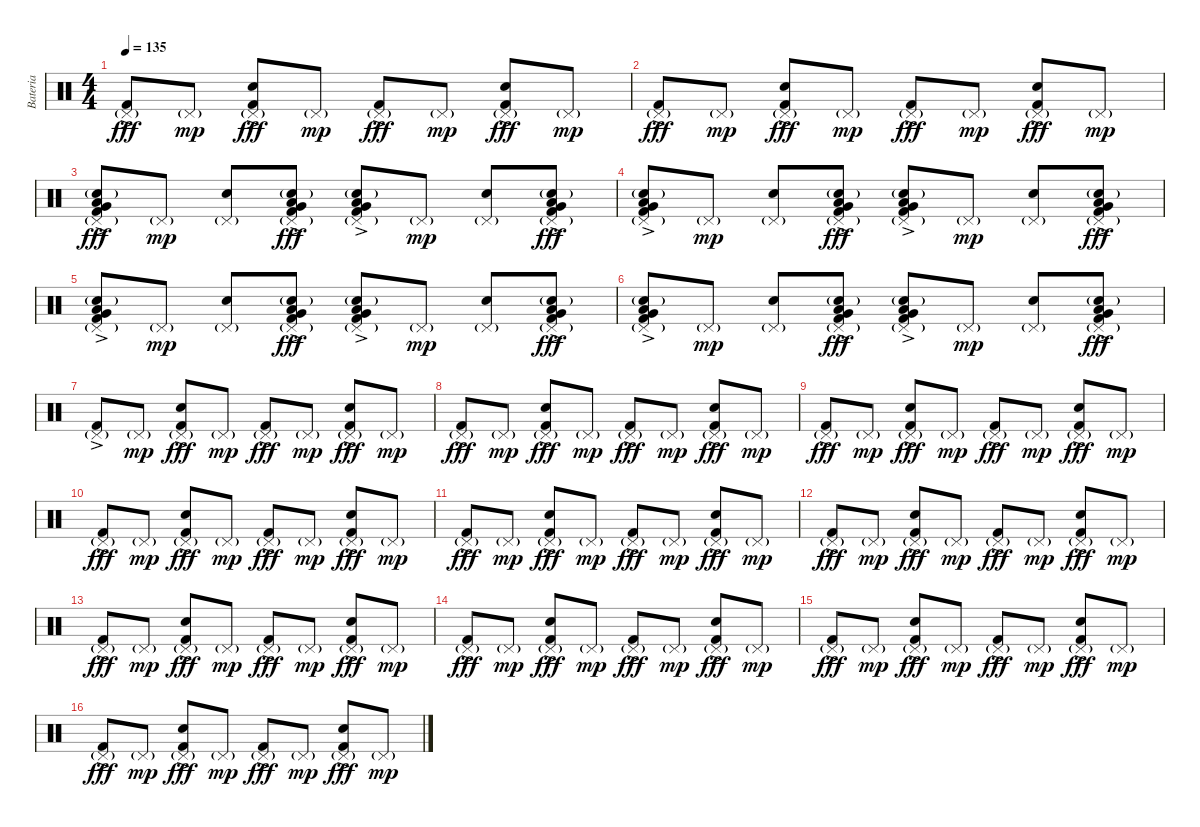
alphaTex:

\track ("Bateria" "Bateria") {instrument percussion}
\staff {score}
\articulation defaults
\ts (4 4)
\tempo 135
\clef neutral
\ks c
("Pedal Hi-Hat (hit)"{g} "Kick (hit) 2"{ac}).8{dy fff} "Pedal Hi-Hat (hit)"{g}.8{dy mp} ("Pedal Hi-Hat (hit)"{g} "Snare (hit) 2" "Kick (hit) 2"{ac}).8{dy fff} "Pedal Hi-Hat (hit)"{g}.8{dy mp} ("Pedal Hi-Hat (hit)"{g} "Kick (hit) 2"{ac}).8{dy fff} "Pedal Hi-Hat (hit)"{g}.8{dy mp} ("Pedal Hi-Hat (hit)"{g} "Snare (hit) 2" "Kick (hit) 2"{ac}).8{dy fff} "Pedal Hi-Hat (hit)"{g}.8{dy mp} |
("Pedal Hi-Hat (hit)"{g} "Kick (hit) 2"{ac}).8{dy fff} "Pedal Hi-Hat (hit)"{g}.8{dy mp} ("Pedal Hi-Hat (hit)"{g} "Snare (hit) 2" "Kick (hit) 2"{ac}).8{dy fff} "Pedal Hi-Hat (hit)"{g}.8{dy mp} ("Pedal Hi-Hat (hit)"{g} "Kick (hit) 2"{ac}).8{dy fff} "Pedal Hi-Hat (hit)"{g}.8{dy mp} ("Pedal Hi-Hat (hit)"{g} "Snare (hit) 2" "Kick (hit) 2"{ac}).8{dy fff} "Pedal Hi-Hat (hit)"{g}.8{dy mp} |
("Pedal Hi-Hat (hit)"{g} "Snare (hit) 2"{g} "Low Floor Tom (hit)"{ac} "Very Low Tom (hit)"{ac} "Kick (hit) 2"{ac}).8{dy fff} "Pedal Hi-Hat (hit)"{g}.8{dy mp} ("Pedal Hi-Hat (hit)"{g} "Snare (hit) 2").8 ("Pedal Hi-Hat (hit)"{g} "Snare (hit) 2"{g} "Low Floor Tom (hit)"{ac} "Very Low Tom (hit)"{ac} "Kick (hit) 2"{ac}).8{dy fff} ("Pedal Hi-Hat (hit)"{g} "Snare (hit) 2"{g} "Low Floor Tom (hit)"{ac} "Very Low Tom (hit)"{ac} "Kick (hit) 2"{ac}).8 "Pedal Hi-Hat (hit)"{g}.8{dy mp} ("Pedal Hi-Hat (hit)"{g} "Snare (hit) 2").8 ("Pedal Hi-Hat (hit)"{g} "Snare (hit) 2"{g} "Low Floor Tom (hit)"{ac} "Very Low Tom (hit)"{ac} "Kick (hit) 2"{ac}).8{dy fff} |
("Pedal Hi-Hat (hit)"{g} "Snare (hit) 2"{g} "Low Floor Tom (hit)"{ac} "Very Low Tom (hit)"{ac} "Kick (hit) 2"{ac}).8 "Pedal Hi-Hat (hit)"{g}.8{dy mp} ("Pedal Hi-Hat (hit)"{g} "Snare (hit) 2").8 ("Pedal Hi-Hat (hit)"{g} "Snare (hit) 2"{g} "Low Floor Tom (hit)"{ac} "Very Low Tom (hit)"{ac} "Kick (hit) 2"{ac}).8{dy fff} ("Pedal Hi-Hat (hit)"{g} "Snare (hit) 2"{g} "Low Floor Tom (hit)"{ac} "Very Low Tom (hit)"{ac} "Kick (hit) 2"{ac}).8 "Pedal Hi-Hat (hit)"{g}.8{dy mp} ("Pedal Hi-Hat (hit)"{g} "Snare (hit) 2").8 ("Pedal Hi-Hat (hit)"{g} "Snare (hit) 2"{g} "Low Floor Tom (hit)"{ac} "Very Low Tom (hit)"{ac} "Kick (hit) 2"{ac}).8{dy fff} |
("Pedal Hi-Hat (hit)"{g} "Snare (hit) 2"{g} "Low Floor Tom (hit)"{ac} "Very Low Tom (hit)"{ac} "Kick (hit) 2"{ac}).8 "Pedal Hi-Hat (hit)"{g}.8{dy mp} ("Pedal Hi-Hat (hit)"{g} "Snare (hit) 2").8 ("Pedal Hi-Hat (hit)"{g} "Snare (hit) 2"{g} "Low Floor Tom (hit)"{ac} "Very Low Tom (hit)"{ac} "Kick (hit) 2"{ac}).8{dy fff} ("Pedal Hi-Hat (hit)"{g} "Snare (hit) 2"{g} "Low Floor Tom (hit)"{ac} "Very Low Tom (hit)"{ac} "Kick (hit) 2"{ac}).8 "Pedal Hi-Hat (hit)"{g}.8{dy mp} ("Pedal Hi-Hat (hit)"{g} "Snare (hit) 2").8 ("Pedal Hi-Hat (hit)"{g} "Snare (hit) 2"{g} "Low Floor Tom (hit)"{ac} "Very Low Tom (hit)"{ac} "Kick (hit) 2"{ac}).8{dy fff} |
("Pedal Hi-Hat (hit)"{g} "Snare (hit) 2"{g} "Low Floor Tom (hit)"{ac} "Very Low Tom (hit)"{ac} "Kick (hit) 2"{ac}).8 "Pedal Hi-Hat (hit)"{g}.8{dy mp} ("Pedal Hi-Hat (hit)"{g} "Snare (hit) 2").8 ("Pedal Hi-Hat (hit)"{g} "Snare (hit) 2"{g} "Low Floor Tom (hit)"{ac} "Very Low Tom (hit)"{ac} "Kick (hit) 2"{ac}).8{dy fff} ("Pedal Hi-Hat (hit)"{g} "Snare (hit) 2"{g} "Low Floor Tom (hit)"{ac} "Very Low Tom (hit)"{ac} "Kick (hit) 2"{ac}).8 "Pedal Hi-Hat (hit)"{g}.8{dy mp} ("Pedal Hi-Hat (hit)"{g} "Snare (hit) 2").8 ("Pedal Hi-Hat (hit)"{g} "Snare (hit) 2"{g} "Low Floor Tom (hit)"{ac} "Very Low Tom (hit)"{ac} "Kick (hit) 2"{ac}).8{dy fff} |
("Pedal Hi-Hat (hit)"{g} "Kick (hit) 2"{ac}).8 "Pedal Hi-Hat (hit)"{g}.8{dy mp} ("Pedal Hi-Hat (hit)"{g} "Snare (hit) 2" "Kick (hit) 2"{ac}).8{dy fff} "Pedal Hi-Hat (hit)"{g}.8{dy mp} ("Pedal Hi-Hat (hit)"{g} "Kick (hit) 2"{ac}).8{dy fff} "Pedal Hi-Hat (hit)"{g}.8{dy mp} ("Pedal Hi-Hat (hit)"{g} "Snare (hit) 2" "Kick (hit) 2"{ac}).8{dy fff} "Pedal Hi-Hat (hit)"{g}.8{dy mp} |
("Pedal Hi-Hat (hit)"{g} "Kick (hit) 2"{ac}).8{dy fff} "Pedal Hi-Hat (hit)"{g}.8{dy mp} ("Pedal Hi-Hat (hit)"{g} "Snare (hit) 2" "Kick (hit) 2"{ac}).8{dy fff} "Pedal Hi-Hat (hit)"{g}.8{dy mp} ("Pedal Hi-Hat (hit)"{g} "Kick (hit) 2"{ac}).8{dy fff} "Pedal Hi-Hat (hit)"{g}.8{dy mp} ("Pedal Hi-Hat (hit)"{g} "Snare (hit) 2" "Kick (hit) 2"{ac}).8{dy fff} "Pedal Hi-Hat (hit)"{g}.8{dy mp} |
("Pedal Hi-Hat (hit)"{g} "Kick (hit) 2"{ac}).8{dy fff} "Pedal Hi-Hat (hit)"{g}.8{dy mp} ("Pedal Hi-Hat (hit)"{g} "Snare (hit) 2" "Kick (hit) 2"{ac}).8{dy fff} "Pedal Hi-Hat (hit)"{g}.8{dy mp} ("Pedal Hi-Hat (hit)"{g} "Kick (hit) 2"{ac}).8{dy fff} "Pedal Hi-Hat (hit)"{g}.8{dy mp} ("Pedal Hi-Hat (hit)"{g} "Snare (hit) 2" "Kick (hit) 2"{ac}).8{dy fff} "Pedal Hi-Hat (hit)"{g}.8{dy mp} |
("Pedal Hi-Hat (hit)"{g} "Kick (hit) 2"{ac}).8{dy fff} "Pedal Hi-Hat (hit)"{g}.8{dy mp} ("Pedal Hi-Hat (hit)"{g} "Snare (hit) 2" "Kick (hit) 2"{ac}).8{dy fff} "Pedal Hi-Hat (hit)"{g}.8{dy mp} ("Pedal Hi-Hat (hit)"{g} "Kick (hit) 2"{ac}).8{dy fff} "Pedal Hi-Hat (hit)"{g}.8{dy mp} ("Pedal Hi-Hat (hit)"{g} "Snare (hit) 2" "Kick (hit) 2"{ac}).8{dy fff} "Pedal Hi-Hat (hit)"{g}.8{dy mp} |
("Pedal Hi-Hat (hit)"{g} "Kick (hit) 2"{ac}).8{dy fff} "Pedal Hi-Hat (hit)"{g}.8{dy mp} ("Pedal Hi-Hat (hit)"{g} "Snare (hit) 2" "Kick (hit) 2"{ac}).8{dy fff} "Pedal Hi-Hat (hit)"{g}.8{dy mp} ("Pedal Hi-Hat (hit)"{g} "Kick (hit) 2"{ac}).8{dy fff} "Pedal Hi-Hat (hit)"{g}.8{dy mp} ("Pedal Hi-Hat (hit)"{g} "Snare (hit) 2" "Kick (hit) 2"{ac}).8{dy fff} "Pedal Hi-Hat (hit)"{g}.8{dy mp} |
("Pedal Hi-Hat (hit)"{g} "Kick (hit) 2"{ac}).8{dy fff} "Pedal Hi-Hat (hit)"{g}.8{dy mp} ("Pedal Hi-Hat (hit)"{g} "Snare (hit) 2" "Kick (hit) 2"{ac}).8{dy fff} "Pedal Hi-Hat (hit)"{g}.8{dy mp} ("Pedal Hi-Hat (hit)"{g} "Kick (hit) 2"{ac}).8{dy fff} "Pedal Hi-Hat (hit)"{g}.8{dy mp} ("Pedal Hi-Hat (hit)"{g} "Snare (hit) 2" "Kick (hit) 2"{ac}).8{dy fff} "Pedal Hi-Hat (hit)"{g}.8{dy mp} |
("Pedal Hi-Hat (hit)"{g} "Kick (hit) 2"{ac}).8{dy fff} "Pedal Hi-Hat (hit)"{g}.8{dy mp} ("Pedal Hi-Hat (hit)"{g} "Snare (hit) 2" "Kick (hit) 2"{ac}).8{dy fff} "Pedal Hi-Hat (hit)"{g}.8{dy mp} ("Pedal Hi-Hat (hit)"{g} "Kick (hit) 2"{ac}).8{dy fff} "Pedal Hi-Hat (hit)"{g}.8{dy mp} ("Pedal Hi-Hat (hit)"{g} "Snare (hit) 2" "Kick (hit) 2"{ac}).8{dy fff} "Pedal Hi-Hat (hit)"{g}.8{dy mp} |
("Pedal Hi-Hat (hit)"{g} "Kick (hit) 2"{ac}).8{dy fff} "Pedal Hi-Hat (hit)"{g}.8{dy mp} ("Pedal Hi-Hat (hit)"{g} "Snare (hit) 2" "Kick (hit) 2"{ac}).8{dy fff} "Pedal Hi-Hat (hit)"{g}.8{dy mp} ("Pedal Hi-Hat (hit)"{g} "Kick (hit) 2"{ac}).8{dy fff} "Pedal Hi-Hat (hit)"{g}.8{dy mp} ("Pedal Hi-Hat (hit)"{g} "Snare (hit) 2" "Kick (hit) 2"{ac}).8{dy fff} "Pedal Hi-Hat (hit)"{g}.8{dy mp} |
("Pedal Hi-Hat (hit)"{g} "Kick (hit) 2"{ac}).8{dy fff} "Pedal Hi-Hat (hit)"{g}.8{dy mp} ("Pedal Hi-Hat (hit)"{g} "Snare (hit) 2" "Kick (hit) 2"{ac}).8{dy fff} "Pedal Hi-Hat (hit)"{g}.8{dy mp} ("Pedal Hi-Hat (hit)"{g} "Kick (hit) 2"{ac}).8{dy fff} "Pedal Hi-Hat (hit)"{g}.8{dy mp} ("Pedal Hi-Hat (hit)"{g} "Snare (hit) 2" "Kick (hit) 2"{ac}).8{dy fff} "Pedal Hi-Hat (hit)"{g}.8{dy mp} |
("Pedal Hi-Hat (hit)"{g} "Kick (hit) 2"{ac}).8{dy fff} "Pedal Hi-Hat (hit)"{g}.8{dy mp} ("Pedal Hi-Hat (hit)"{g} "Snare (hit) 2" "Kick (hit) 2"{ac}).8{dy fff} "Pedal Hi-Hat (hit)"{g}.8{dy mp} ("Pedal Hi-Hat (hit)"{g} "Kick (hit) 2"{ac}).8{dy fff} "Pedal Hi-Hat (hit)"{g}.8{dy mp} ("Pedal Hi-Hat (hit)"{g} "Snare (hit) 2" "Kick (hit) 2"{ac}).8{dy fff} "Pedal Hi-Hat (hit)"{g}.8{dy mp}
